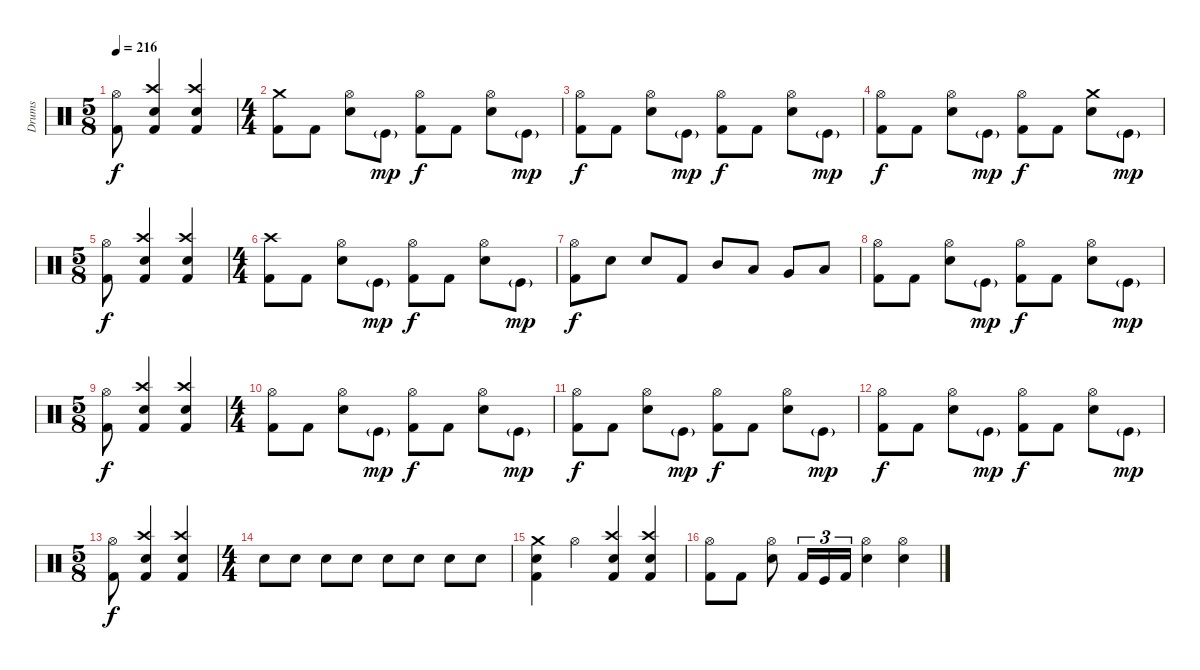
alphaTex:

\track ("Drums" "Drums") {instrument percussion}
\staff {score}
\articulation defaults
\ts (5 8)
\tempo 216
\clef neutral
\ks c
("Hi-Hat (open)" "Kick (hit) 2").8{dy f} ("Crash high (hit)" "Snare (hit) 2" "Kick (hit) 2").4 ("Crash high (hit)" "Snare (hit) 2" "Kick (hit) 2").4 |
\ts (4 4)
("Crash medium (hit)" "Kick (hit) 2").8 "Kick (hit) 2".8 ("Hi-Hat (open)" "Snare (hit) 2").8 "Kick (hit)"{g}.8{dy mp} ("Hi-Hat (open)" "Kick (hit) 2").8{dy f} "Kick (hit) 2".8 ("Hi-Hat (open)" "Snare (hit) 2").8 "Kick (hit)"{g}.8{dy mp} |
("Hi-Hat (open)" "Kick (hit) 2").8{dy f} "Kick (hit) 2".8 ("Hi-Hat (open)" "Snare (hit) 2").8 "Kick (hit)"{g}.8{dy mp} ("Hi-Hat (open)" "Kick (hit) 2").8{dy f} "Kick (hit) 2".8 ("Hi-Hat (open)" "Snare (hit) 2").8 "Kick (hit)"{g}.8{dy mp} |
("Hi-Hat (open)" "Kick (hit) 2").8{dy f} "Kick (hit) 2".8 ("Hi-Hat (open)" "Snare (hit) 2").8 "Kick (hit)"{g}.8{dy mp} ("Hi-Hat (open)" "Kick (hit) 2").8{dy f} "Kick (hit) 2".8 ("Crash medium (hit)" "Snare (hit) 2").8 "Kick (hit)"{g}.8{dy mp} |
\ts (5 8)
("Hi-Hat (open)" "Kick (hit) 2").8{dy f} ("Crash high (hit)" "Snare (hit) 2" "Kick (hit) 2").4 ("Crash high (hit)" "Snare (hit) 2" "Kick (hit) 2").4 |
\ts (4 4)
("Crash high (hit)" "Kick (hit) 2").8 "Kick (hit) 2".8 ("Hi-Hat (open)" "Snare (hit) 2").8 "Kick (hit)"{g}.8{dy mp} ("Hi-Hat (open)" "Kick (hit) 2").8{dy f} "Kick (hit) 2".8 ("Hi-Hat (open)" "Snare (hit) 2").8 "Kick (hit)"{g}.8{dy mp} |
("Hi-Hat (open)" "Kick (hit) 2").8{dy f} "Snare (hit) 2".8 "Snare (hit) 2".8 "Kick (hit) 2".8 "Mid Tom (hit)".8 "Low Tom (hit)".8 "Very Low Tom (hit)".8 "Low Floor Tom (hit)".8 |
("Hi-Hat (open)" "Kick (hit) 2").8 "Kick (hit) 2".8 ("Hi-Hat (open)" "Snare (hit) 2").8 "Kick (hit)"{g}.8{dy mp} ("Hi-Hat (open)" "Kick (hit) 2").8{dy f} "Kick (hit) 2".8 ("Hi-Hat (open)" "Snare (hit) 2").8 "Kick (hit)"{g}.8{dy mp} |
\ts (5 8)
("Hi-Hat (open)" "Kick (hit) 2").8{dy f} ("Crash high (hit)" "Snare (hit) 2" "Kick (hit) 2").4 ("Crash high (hit)" "Snare (hit) 2" "Kick (hit) 2").4 |
\ts (4 4)
("Hi-Hat (open)" "Kick (hit) 2").8 "Kick (hit) 2".8 ("Hi-Hat (open)" "Snare (hit) 2").8 "Kick (hit)"{g}.8{dy mp} ("Hi-Hat (open)" "Kick (hit) 2").8{dy f} "Kick (hit) 2".8 ("Hi-Hat (open)" "Snare (hit) 2").8 "Kick (hit)"{g}.8{dy mp} |
("Hi-Hat (open)" "Kick (hit) 2").8{dy f} "Kick (hit) 2".8 ("Hi-Hat (open)" "Snare (hit) 2").8 "Kick (hit)"{g}.8{dy mp} ("Hi-Hat (open)" "Kick (hit) 2").8{dy f} "Kick (hit) 2".8 ("Hi-Hat (open)" "Snare (hit) 2").8 "Kick (hit)"{g}.8{dy mp} |
("Hi-Hat (open)" "Kick (hit) 2").8{dy f} "Kick (hit) 2".8 ("Hi-Hat (open)" "Snare (hit) 2").8 "Kick (hit)"{g}.8{dy mp} ("Hi-Hat (open)" "Kick (hit) 2").8{dy f} "Kick (hit) 2".8 ("Hi-Hat (open)" "Snare (hit) 2").8 "Kick (hit)"{g}.8{dy mp} |
\ts (5 8)
("Hi-Hat (open)" "Kick (hit) 2").8{dy f} ("Crash high (hit)" "Snare (hit) 2" "Kick (hit) 2").4 ("Crash high (hit)" "Snare (hit) 2" "Kick (hit) 2").4 |
\ts (4 4)
"Electric Snare (hit)".8 "Electric Snare (hit)".8 "Electric Snare (hit)".8 "Electric Snare (hit)".8 "Electric Snare (hit)".8 "Electric Snare (hit)".8 "Electric Snare (hit)".8 "Electric Snare (hit)".8 |
("Crash medium (hit)" "Snare (hit) 2" "Kick (hit) 2").4 "Hi-Hat (open)".4 ("Crash high (hit)" "Snare (hit) 2" "Kick (hit) 2").4 ("Crash high (hit)" "Snare (hit) 2" "Kick (hit) 2").4 |
("Hi-Hat (open)" "Kick (hit) 2").8 "Kick (hit) 2".8 ("Hi-Hat (open)" "Snare (hit) 2").8 "Kick (hit) 2".16{tu (3 2)} "Kick (hit)".16{tu (3 2)} "Kick (hit) 2".16{tu (3 2)} ("Hi-Hat (open)" "Snare (hit) 2").4 ("Hi-Hat (open)" "Snare (hit) 2").4
